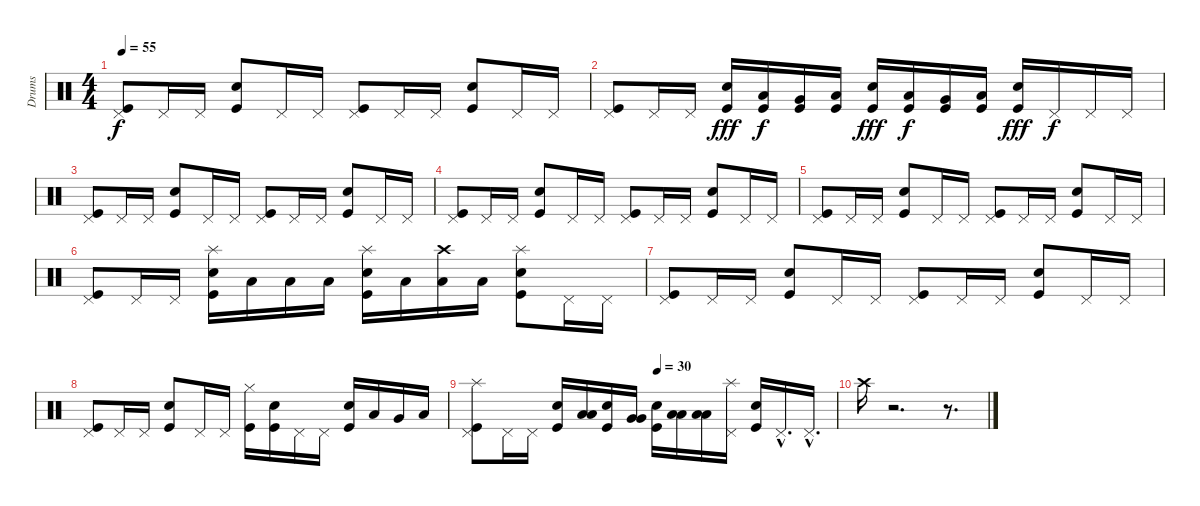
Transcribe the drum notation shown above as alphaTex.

\track ("Drums" "Drums") {instrument percussion}
\staff {score}
\articulation defaults
\ts (4 4)
\tempo 55
\clef neutral
\ks c
("Pedal Hi-Hat (hit)" "Kick (hit)").8{dy f} "Pedal Hi-Hat (hit)".16 "Pedal Hi-Hat (hit)".16 ("Snare (hit) 2" "Kick (hit)").8 "Pedal Hi-Hat (hit)".16 "Pedal Hi-Hat (hit)".16 ("Pedal Hi-Hat (hit)" "Kick (hit)").8 "Pedal Hi-Hat (hit)".16 "Pedal Hi-Hat (hit)".16 ("Snare (hit) 2" "Kick (hit)").8 "Pedal Hi-Hat (hit)".16 "Pedal Hi-Hat (hit)".16 |
("Pedal Hi-Hat (hit)" "Kick (hit)").8 "Pedal Hi-Hat (hit)".16 "Pedal Hi-Hat (hit)".16 ("Snare (hit) 2" "Kick (hit)").16{dy fff} ("Low Tom (hit)" "Kick (hit)").16{dy f} ("Very Low Tom (hit)" "Kick (hit)").16 ("Low Floor Tom (hit)" "Kick (hit)").16 ("Snare (hit) 2" "Kick (hit)").16{dy fff} ("Low Tom (hit)" "Kick (hit)").16{dy f} ("Very Low Tom (hit)" "Kick (hit)").16 ("Low Floor Tom (hit)" "Kick (hit)").16 ("Snare (hit) 2" "Kick (hit)").16{dy fff} "Pedal Hi-Hat (hit)".16{dy f} "Pedal Hi-Hat (hit)".16 "Pedal Hi-Hat (hit)".16 |
("Pedal Hi-Hat (hit)" "Kick (hit)").8 "Pedal Hi-Hat (hit)".16 "Pedal Hi-Hat (hit)".16 ("Snare (hit) 2" "Kick (hit)").8 "Pedal Hi-Hat (hit)".16 "Pedal Hi-Hat (hit)".16 ("Pedal Hi-Hat (hit)" "Kick (hit)").8 "Pedal Hi-Hat (hit)".16 "Pedal Hi-Hat (hit)".16 ("Snare (hit) 2" "Kick (hit)").8 "Pedal Hi-Hat (hit)".16 "Pedal Hi-Hat (hit)".16 |
("Pedal Hi-Hat (hit)" "Kick (hit)").8 "Pedal Hi-Hat (hit)".16 "Pedal Hi-Hat (hit)".16 ("Snare (hit) 2" "Kick (hit)").8 "Pedal Hi-Hat (hit)".16 "Pedal Hi-Hat (hit)".16 ("Pedal Hi-Hat (hit)" "Kick (hit)").8 "Pedal Hi-Hat (hit)".16 "Pedal Hi-Hat (hit)".16 ("Snare (hit) 2" "Kick (hit)").8 "Pedal Hi-Hat (hit)".16 "Pedal Hi-Hat (hit)".16 |
("Pedal Hi-Hat (hit)" "Kick (hit)").8 "Pedal Hi-Hat (hit)".16 "Pedal Hi-Hat (hit)".16 ("Snare (hit) 2" "Kick (hit)").8 "Pedal Hi-Hat (hit)".16 "Pedal Hi-Hat (hit)".16 ("Pedal Hi-Hat (hit)" "Kick (hit)").8 "Pedal Hi-Hat (hit)".16 "Pedal Hi-Hat (hit)".16 ("Snare (hit) 2" "Kick (hit)").8 "Pedal Hi-Hat (hit)".16 "Pedal Hi-Hat (hit)".16 |
("Pedal Hi-Hat (hit)" "Kick (hit)").8 "Pedal Hi-Hat (hit)".16 "Pedal Hi-Hat (hit)".16 ("Snare (hit) 2" "Splash (hit)" "Kick (hit)").16 "Low Tom (hit)".16 "Low Tom (hit)".16 "Low Tom (hit)".16 ("Snare (hit) 2" "Splash (hit)" "Kick (hit)").16 "Low Tom (hit)".16 ("Low Tom (hit)" "Crash high (hit)").16 "Low Tom (hit)".16 ("Snare (hit) 2" "Splash (hit)" "Kick (hit)").8 "Pedal Hi-Hat (hit)".16 "Pedal Hi-Hat (hit)".16 |
("Pedal Hi-Hat (hit)" "Kick (hit)").8 "Pedal Hi-Hat (hit)".16 "Pedal Hi-Hat (hit)".16 ("Snare (hit) 2" "Kick (hit)").8 "Pedal Hi-Hat (hit)".16 "Pedal Hi-Hat (hit)".16 ("Pedal Hi-Hat (hit)" "Kick (hit)").8 "Pedal Hi-Hat (hit)".16 "Pedal Hi-Hat (hit)".16 ("Snare (hit) 2" "Kick (hit)").8 "Pedal Hi-Hat (hit)".16 "Pedal Hi-Hat (hit)".16 |
("Pedal Hi-Hat (hit)" "Kick (hit)").8 "Pedal Hi-Hat (hit)".16 "Pedal Hi-Hat (hit)".16 ("Snare (hit) 2" "Kick (hit)").8 "Pedal Hi-Hat (hit)".16 "Pedal Hi-Hat (hit)".16 ("Hi-Hat (closed)" "Kick (hit)").16 ("Snare (hit) 2" "Kick (hit)").16 "Pedal Hi-Hat (hit)".16 "Pedal Hi-Hat (hit)".16 ("Snare (hit) 2" "Kick (hit)").16 "Low Tom (hit)".16 "Very Low Tom (hit)".16 "Low Floor Tom (hit)".16 |
\tempo (30 0.5104166666666666)
("Pedal Hi-Hat (hit)" "Splash (hit)" "Kick (hit)").8 "Pedal Hi-Hat (hit)".16 "Pedal Hi-Hat (hit)".16 ("Snare (hit) 2" "Kick (hit)").16 ("Low Tom (hit)" "Low Tom (hit)").16 ("Snare (hit) 2" "Kick (hit)").16 ("Very Low Tom (hit)" "Very Low Tom (hit)").16 ("Snare (hit) 2" "Kick (hit)").16 ("Low Floor Tom (hit)" "Low Floor Tom (hit)").16 ("Low Floor Tom (hit)" "Low Floor Tom (hit)").16 ("Pedal Hi-Hat (hit)" "Splash (hit)").16 ("Snare (hit) 2" "Kick (hit)").16 "Pedal Hi-Hat (hit)"{hac}.16{d} "Pedal Hi-Hat (hit)"{hac}.16{d} |
"Crash high (hit)".16 r.2{d} r.8{d}
